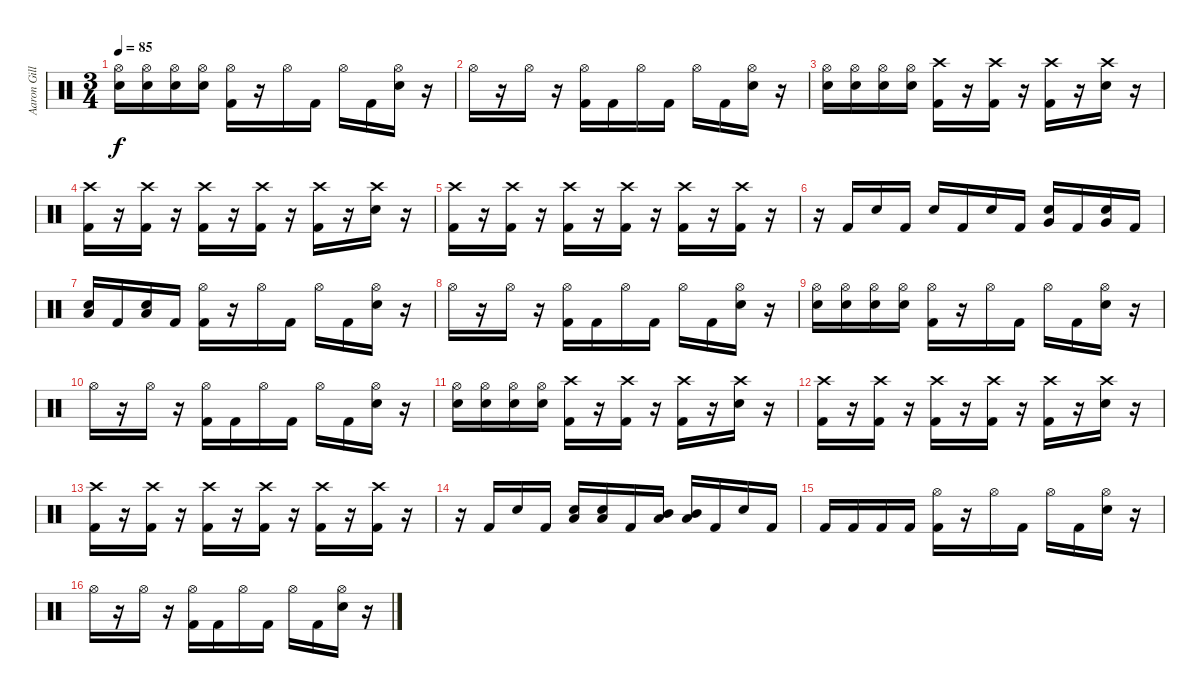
\track ("Aaron Gillespie" "Aaron Gill") {instrument percussion}
\staff {score}
\articulation defaults
\ts (3 4)
\tempo 85
\clef neutral
\ks c
("Hi-Hat (open)" "Electric Snare (hit)").16{dy f} ("Hi-Hat (open)" "Electric Snare (hit)").16 ("Hi-Hat (open)" "Electric Snare (hit)").16 ("Hi-Hat (open)" "Electric Snare (hit)").16 ("Hi-Hat (open)" "Kick (hit) 2").16 r.16 "Hi-Hat (open)".16 "Kick (hit) 2".16 "Hi-Hat (open)".16 "Kick (hit) 2".16 ("Hi-Hat (open)" "Electric Snare (hit)").16 r.16 |
"Hi-Hat (open)".16 r.16 "Hi-Hat (open)".16 r.16 ("Hi-Hat (open)" "Kick (hit) 2").16 "Kick (hit) 2".16 "Hi-Hat (open)".16 "Kick (hit) 2".16 "Hi-Hat (open)".16 "Kick (hit) 2".16 ("Hi-Hat (open)" "Electric Snare (hit)").16 r.16 |
("Hi-Hat (open)" "Electric Snare (hit)").16 ("Hi-Hat (open)" "Electric Snare (hit)").16 ("Hi-Hat (open)" "Electric Snare (hit)").16 ("Hi-Hat (open)" "Electric Snare (hit)").16 ("Crash high (hit)" "Kick (hit) 2").16 r.16 ("Crash high (hit)" "Kick (hit) 2").16 r.16 ("Crash high (hit)" "Kick (hit) 2").16 r.16 ("Crash high (hit)" "Electric Snare (hit)").16 r.16 |
("Crash high (hit)" "Kick (hit) 2").16 r.16 ("Crash high (hit)" "Kick (hit) 2").16 r.16 ("Crash high (hit)" "Kick (hit) 2").16 r.16 ("Crash high (hit)" "Kick (hit) 2").16 r.16 ("Crash high (hit)" "Kick (hit) 2").16 r.16 ("Crash high (hit)" "Electric Snare (hit)").16 r.16 |
("Crash high (hit)" "Kick (hit) 2").16 r.16 ("Crash high (hit)" "Kick (hit) 2").16 r.16 ("Crash high (hit)" "Kick (hit) 2").16 r.16 ("Crash high (hit)" "Kick (hit) 2").16 r.16 ("Crash high (hit)" "Kick (hit) 2").16 r.16 ("Crash high (hit)" "Kick (hit) 2").16 r.16 |
r.16 "Kick (hit) 2".16 "Electric Snare (hit)".16 "Kick (hit) 2".16 "Electric Snare (hit)".16 "Kick (hit) 2".16 "Electric Snare (hit)".16 "Kick (hit) 2".16 ("Very Low Tom (hit)" "Electric Snare (hit)").16 "Kick (hit) 2".16 ("Very Low Tom (hit)" "Electric Snare (hit)").16 "Kick (hit) 2".16 |
("Low Floor Tom (hit)" "Electric Snare (hit)").16 "Kick (hit) 2".16 ("Low Floor Tom (hit)" "Electric Snare (hit)").16 "Kick (hit) 2".16 ("Hi-Hat (open)" "Kick (hit) 2").16 r.16 "Hi-Hat (open)".16 "Kick (hit) 2".16 "Hi-Hat (open)".16 "Kick (hit) 2".16 ("Hi-Hat (open)" "Electric Snare (hit)").16 r.16 |
"Hi-Hat (open)".16 r.16 "Hi-Hat (open)".16 r.16 ("Hi-Hat (open)" "Kick (hit) 2").16 "Kick (hit) 2".16 "Hi-Hat (open)".16 "Kick (hit) 2".16 "Hi-Hat (open)".16 "Kick (hit) 2".16 ("Hi-Hat (open)" "Electric Snare (hit)").16 r.16 |
("Hi-Hat (open)" "Electric Snare (hit)").16 ("Hi-Hat (open)" "Electric Snare (hit)").16 ("Hi-Hat (open)" "Electric Snare (hit)").16 ("Hi-Hat (open)" "Electric Snare (hit)").16 ("Hi-Hat (open)" "Kick (hit) 2").16 r.16 "Hi-Hat (open)".16 "Kick (hit) 2".16 "Hi-Hat (open)".16 "Kick (hit) 2".16 ("Hi-Hat (open)" "Electric Snare (hit)").16 r.16 |
"Hi-Hat (open)".16 r.16 "Hi-Hat (open)".16 r.16 ("Hi-Hat (open)" "Kick (hit) 2").16 "Kick (hit) 2".16 "Hi-Hat (open)".16 "Kick (hit) 2".16 "Hi-Hat (open)".16 "Kick (hit) 2".16 ("Hi-Hat (open)" "Electric Snare (hit)").16 r.16 |
("Hi-Hat (open)" "Electric Snare (hit)").16 ("Hi-Hat (open)" "Electric Snare (hit)").16 ("Hi-Hat (open)" "Electric Snare (hit)").16 ("Hi-Hat (open)" "Electric Snare (hit)").16 ("Crash high (hit)" "Kick (hit) 2").16 r.16 ("Crash high (hit)" "Kick (hit) 2").16 r.16 ("Crash high (hit)" "Kick (hit) 2").16 r.16 ("Crash high (hit)" "Electric Snare (hit)").16 r.16 |
("Crash high (hit)" "Kick (hit) 2").16 r.16 ("Crash high (hit)" "Kick (hit) 2").16 r.16 ("Crash high (hit)" "Kick (hit) 2").16 r.16 ("Crash high (hit)" "Kick (hit) 2").16 r.16 ("Crash high (hit)" "Kick (hit) 2").16 r.16 ("Crash high (hit)" "Electric Snare (hit)").16 r.16 |
("Crash high (hit)" "Kick (hit) 2").16 r.16 ("Crash high (hit)" "Kick (hit) 2").16 r.16 ("Crash high (hit)" "Kick (hit) 2").16 r.16 ("Crash high (hit)" "Kick (hit) 2").16 r.16 ("Crash high (hit)" "Kick (hit) 2").16 r.16 ("Crash high (hit)" "Kick (hit) 2").16 r.16 |
r.16 "Kick (hit) 2".16 "Electric Snare (hit)".16 "Kick (hit) 2".16 ("Low Floor Tom (hit)" "Electric Snare (hit)").16 ("Low Floor Tom (hit)" "Electric Snare (hit)").16 "Kick (hit) 2".16 ("Low Tom (hit)" "Mid Tom (hit)").16 ("Low Tom (hit)" "Mid Tom (hit)").16 "Kick (hit) 2".16 "Electric Snare (hit)".16 "Kick (hit) 2".16 |
"Kick (hit) 2".16 "Kick (hit) 2".16 "Kick (hit) 2".16 "Kick (hit) 2".16 ("Hi-Hat (open)" "Kick (hit) 2").16 r.16 "Hi-Hat (open)".16 "Kick (hit) 2".16 "Hi-Hat (open)".16 "Kick (hit) 2".16 ("Hi-Hat (open)" "Electric Snare (hit)").16 r.16 |
"Hi-Hat (open)".16 r.16 "Hi-Hat (open)".16 r.16 ("Hi-Hat (open)" "Kick (hit) 2").16 "Kick (hit) 2".16 "Hi-Hat (open)".16 "Kick (hit) 2".16 "Hi-Hat (open)".16 "Kick (hit) 2".16 ("Hi-Hat (open)" "Electric Snare (hit)").16 r.16
